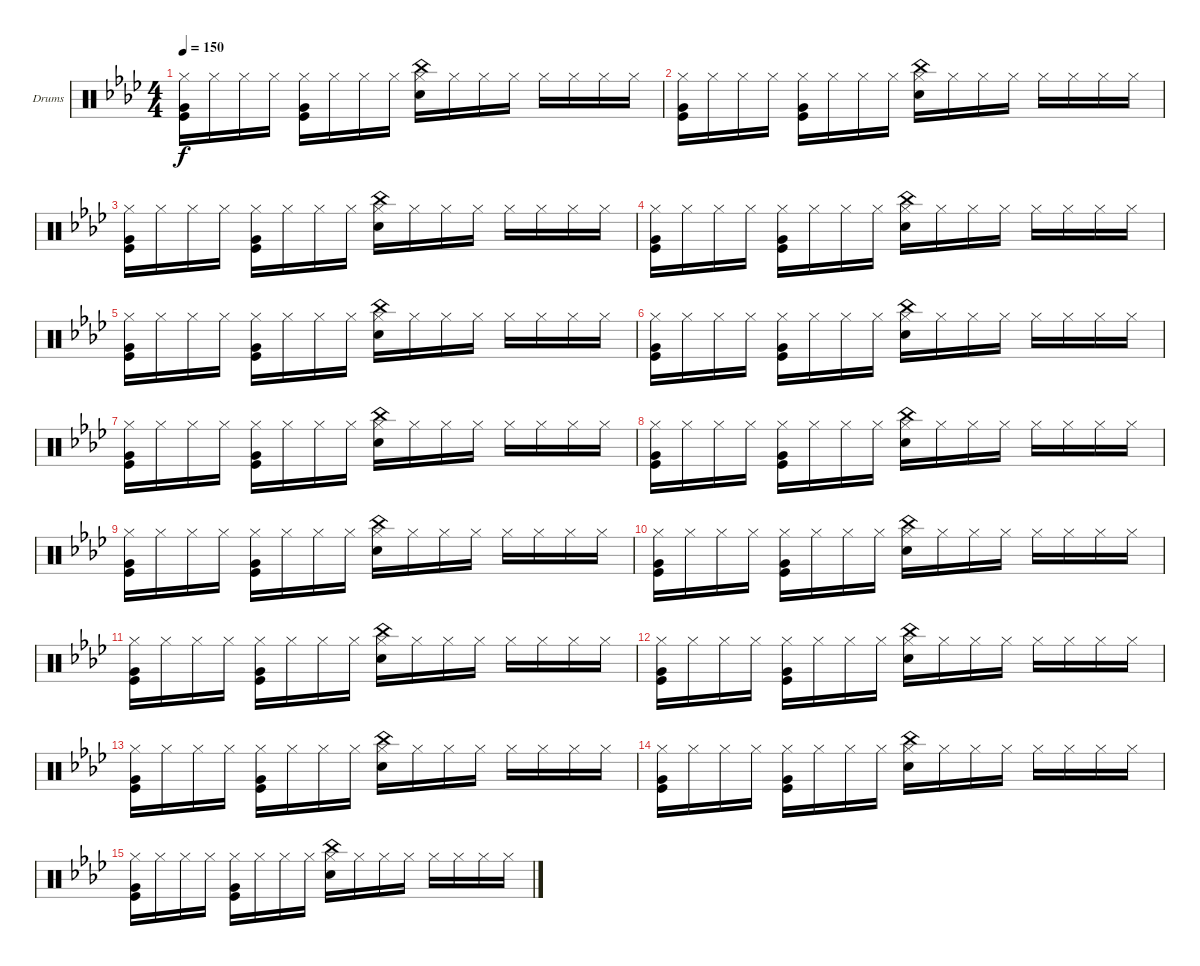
\bracketExtendMode groupsimilarinstruments
\firstSystemTrackNameOrientation horizontal
\otherSystemsTrackNameOrientation horizontal
\track ("Drums" "Drums") {instrument percussion}
\staff {score}
\articulation defaults
\ts (4 4)
\tempo 150
\clef neutral
\ks ab
("Kick (hit)" "Very Low Tom (hit)" "Hi-Hat (closed)").16{dy f} "Hi-Hat (closed)".16 "Hi-Hat (closed)".16 "Hi-Hat (closed)".16 ("Kick (hit)" "Very Low Tom (hit)" "Hi-Hat (closed)").16 "Hi-Hat (closed)".16 "Hi-Hat (closed)".16 "Hi-Hat (closed)".16 ("Hi-Hat (closed)" "Snare (hit) 2" "China (hit)").16 "Hi-Hat (closed)".16 "Hi-Hat (closed)".16 "Hi-Hat (closed)".16 "Hi-Hat (closed)".16 "Hi-Hat (closed)".16 "Hi-Hat (closed)".16 "Hi-Hat (closed)".16 |
("Kick (hit)" "Very Low Tom (hit)" "Hi-Hat (closed)").16 "Hi-Hat (closed)".16 "Hi-Hat (closed)".16 "Hi-Hat (closed)".16 ("Kick (hit)" "Very Low Tom (hit)" "Hi-Hat (closed)").16 "Hi-Hat (closed)".16 "Hi-Hat (closed)".16 "Hi-Hat (closed)".16 ("Hi-Hat (closed)" "Snare (hit) 2" "China (hit)").16 "Hi-Hat (closed)".16 "Hi-Hat (closed)".16 "Hi-Hat (closed)".16 "Hi-Hat (closed)".16 "Hi-Hat (closed)".16 "Hi-Hat (closed)".16 "Hi-Hat (closed)".16 |
("Kick (hit)" "Very Low Tom (hit)" "Hi-Hat (closed)").16 "Hi-Hat (closed)".16 "Hi-Hat (closed)".16 "Hi-Hat (closed)".16 ("Kick (hit)" "Very Low Tom (hit)" "Hi-Hat (closed)").16 "Hi-Hat (closed)".16 "Hi-Hat (closed)".16 "Hi-Hat (closed)".16 ("Hi-Hat (closed)" "Snare (hit) 2" "China (hit)").16 "Hi-Hat (closed)".16 "Hi-Hat (closed)".16 "Hi-Hat (closed)".16 "Hi-Hat (closed)".16 "Hi-Hat (closed)".16 "Hi-Hat (closed)".16 "Hi-Hat (closed)".16 |
("Kick (hit)" "Very Low Tom (hit)" "Hi-Hat (closed)").16 "Hi-Hat (closed)".16 "Hi-Hat (closed)".16 "Hi-Hat (closed)".16 ("Kick (hit)" "Very Low Tom (hit)" "Hi-Hat (closed)").16 "Hi-Hat (closed)".16 "Hi-Hat (closed)".16 "Hi-Hat (closed)".16 ("Hi-Hat (closed)" "Snare (hit) 2" "China (hit)").16 "Hi-Hat (closed)".16 "Hi-Hat (closed)".16 "Hi-Hat (closed)".16 "Hi-Hat (closed)".16 "Hi-Hat (closed)".16 "Hi-Hat (closed)".16 "Hi-Hat (closed)".16 |
("Kick (hit)" "Very Low Tom (hit)" "Hi-Hat (closed)").16 "Hi-Hat (closed)".16 "Hi-Hat (closed)".16 "Hi-Hat (closed)".16 ("Kick (hit)" "Very Low Tom (hit)" "Hi-Hat (closed)").16 "Hi-Hat (closed)".16 "Hi-Hat (closed)".16 "Hi-Hat (closed)".16 ("Hi-Hat (closed)" "Snare (hit) 2" "China (hit)").16 "Hi-Hat (closed)".16 "Hi-Hat (closed)".16 "Hi-Hat (closed)".16 "Hi-Hat (closed)".16 "Hi-Hat (closed)".16 "Hi-Hat (closed)".16 "Hi-Hat (closed)".16 |
("Kick (hit)" "Very Low Tom (hit)" "Hi-Hat (closed)").16 "Hi-Hat (closed)".16 "Hi-Hat (closed)".16 "Hi-Hat (closed)".16 ("Kick (hit)" "Very Low Tom (hit)" "Hi-Hat (closed)").16 "Hi-Hat (closed)".16 "Hi-Hat (closed)".16 "Hi-Hat (closed)".16 ("Hi-Hat (closed)" "Snare (hit) 2" "China (hit)").16 "Hi-Hat (closed)".16 "Hi-Hat (closed)".16 "Hi-Hat (closed)".16 "Hi-Hat (closed)".16 "Hi-Hat (closed)".16 "Hi-Hat (closed)".16 "Hi-Hat (closed)".16 |
("Kick (hit)" "Very Low Tom (hit)" "Hi-Hat (closed)").16 "Hi-Hat (closed)".16 "Hi-Hat (closed)".16 "Hi-Hat (closed)".16 ("Kick (hit)" "Very Low Tom (hit)" "Hi-Hat (closed)").16 "Hi-Hat (closed)".16 "Hi-Hat (closed)".16 "Hi-Hat (closed)".16 ("Hi-Hat (closed)" "Snare (hit) 2" "China (hit)").16 "Hi-Hat (closed)".16 "Hi-Hat (closed)".16 "Hi-Hat (closed)".16 "Hi-Hat (closed)".16 "Hi-Hat (closed)".16 "Hi-Hat (closed)".16 "Hi-Hat (closed)".16 |
("Kick (hit)" "Very Low Tom (hit)" "Hi-Hat (closed)").16 "Hi-Hat (closed)".16 "Hi-Hat (closed)".16 "Hi-Hat (closed)".16 ("Kick (hit)" "Very Low Tom (hit)" "Hi-Hat (closed)").16 "Hi-Hat (closed)".16 "Hi-Hat (closed)".16 "Hi-Hat (closed)".16 ("Hi-Hat (closed)" "Snare (hit) 2" "China (hit)").16 "Hi-Hat (closed)".16 "Hi-Hat (closed)".16 "Hi-Hat (closed)".16 "Hi-Hat (closed)".16 "Hi-Hat (closed)".16 "Hi-Hat (closed)".16 "Hi-Hat (closed)".16 |
("Kick (hit)" "Very Low Tom (hit)" "Hi-Hat (closed)").16 "Hi-Hat (closed)".16 "Hi-Hat (closed)".16 "Hi-Hat (closed)".16 ("Kick (hit)" "Very Low Tom (hit)" "Hi-Hat (closed)").16 "Hi-Hat (closed)".16 "Hi-Hat (closed)".16 "Hi-Hat (closed)".16 ("Hi-Hat (closed)" "Snare (hit) 2" "China (hit)").16 "Hi-Hat (closed)".16 "Hi-Hat (closed)".16 "Hi-Hat (closed)".16 "Hi-Hat (closed)".16 "Hi-Hat (closed)".16 "Hi-Hat (closed)".16 "Hi-Hat (closed)".16 |
("Kick (hit)" "Very Low Tom (hit)" "Hi-Hat (closed)").16 "Hi-Hat (closed)".16 "Hi-Hat (closed)".16 "Hi-Hat (closed)".16 ("Kick (hit)" "Very Low Tom (hit)" "Hi-Hat (closed)").16 "Hi-Hat (closed)".16 "Hi-Hat (closed)".16 "Hi-Hat (closed)".16 ("Hi-Hat (closed)" "Snare (hit) 2" "China (hit)").16 "Hi-Hat (closed)".16 "Hi-Hat (closed)".16 "Hi-Hat (closed)".16 "Hi-Hat (closed)".16 "Hi-Hat (closed)".16 "Hi-Hat (closed)".16 "Hi-Hat (closed)".16 |
("Kick (hit)" "Very Low Tom (hit)" "Hi-Hat (closed)").16 "Hi-Hat (closed)".16 "Hi-Hat (closed)".16 "Hi-Hat (closed)".16 ("Kick (hit)" "Very Low Tom (hit)" "Hi-Hat (closed)").16 "Hi-Hat (closed)".16 "Hi-Hat (closed)".16 "Hi-Hat (closed)".16 ("Hi-Hat (closed)" "Snare (hit) 2" "China (hit)").16 "Hi-Hat (closed)".16 "Hi-Hat (closed)".16 "Hi-Hat (closed)".16 "Hi-Hat (closed)".16 "Hi-Hat (closed)".16 "Hi-Hat (closed)".16 "Hi-Hat (closed)".16 |
("Kick (hit)" "Very Low Tom (hit)" "Hi-Hat (closed)").16 "Hi-Hat (closed)".16 "Hi-Hat (closed)".16 "Hi-Hat (closed)".16 ("Kick (hit)" "Very Low Tom (hit)" "Hi-Hat (closed)").16 "Hi-Hat (closed)".16 "Hi-Hat (closed)".16 "Hi-Hat (closed)".16 ("Hi-Hat (closed)" "Snare (hit) 2" "China (hit)").16 "Hi-Hat (closed)".16 "Hi-Hat (closed)".16 "Hi-Hat (closed)".16 "Hi-Hat (closed)".16 "Hi-Hat (closed)".16 "Hi-Hat (closed)".16 "Hi-Hat (closed)".16 |
("Kick (hit)" "Very Low Tom (hit)" "Hi-Hat (closed)").16 "Hi-Hat (closed)".16 "Hi-Hat (closed)".16 "Hi-Hat (closed)".16 ("Kick (hit)" "Very Low Tom (hit)" "Hi-Hat (closed)").16 "Hi-Hat (closed)".16 "Hi-Hat (closed)".16 "Hi-Hat (closed)".16 ("Hi-Hat (closed)" "Snare (hit) 2" "China (hit)").16 "Hi-Hat (closed)".16 "Hi-Hat (closed)".16 "Hi-Hat (closed)".16 "Hi-Hat (closed)".16 "Hi-Hat (closed)".16 "Hi-Hat (closed)".16 "Hi-Hat (closed)".16 |
("Kick (hit)" "Very Low Tom (hit)" "Hi-Hat (closed)").16 "Hi-Hat (closed)".16 "Hi-Hat (closed)".16 "Hi-Hat (closed)".16 ("Kick (hit)" "Very Low Tom (hit)" "Hi-Hat (closed)").16 "Hi-Hat (closed)".16 "Hi-Hat (closed)".16 "Hi-Hat (closed)".16 ("Hi-Hat (closed)" "Snare (hit) 2" "China (hit)").16 "Hi-Hat (closed)".16 "Hi-Hat (closed)".16 "Hi-Hat (closed)".16 "Hi-Hat (closed)".16 "Hi-Hat (closed)".16 "Hi-Hat (closed)".16 "Hi-Hat (closed)".16 |
("Kick (hit)" "Very Low Tom (hit)" "Hi-Hat (closed)").16 "Hi-Hat (closed)".16 "Hi-Hat (closed)".16 "Hi-Hat (closed)".16 ("Kick (hit)" "Very Low Tom (hit)" "Hi-Hat (closed)").16 "Hi-Hat (closed)".16 "Hi-Hat (closed)".16 "Hi-Hat (closed)".16 ("Hi-Hat (closed)" "Snare (hit) 2" "China (hit)").16 "Hi-Hat (closed)".16 "Hi-Hat (closed)".16 "Hi-Hat (closed)".16 "Hi-Hat (closed)".16 "Hi-Hat (closed)".16 "Hi-Hat (closed)".16 "Hi-Hat (closed)".16
